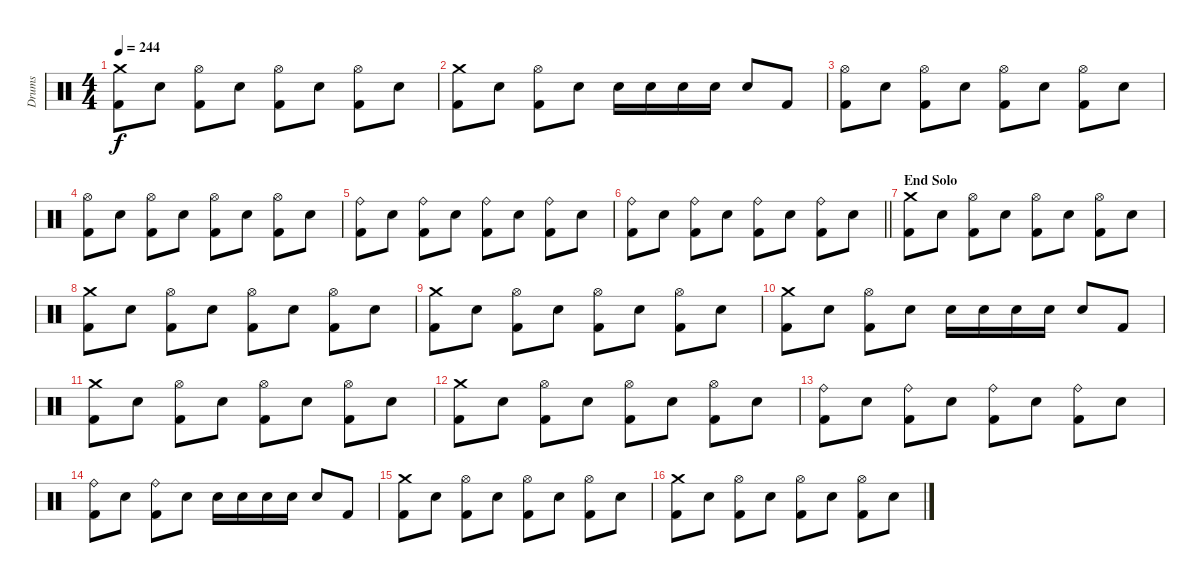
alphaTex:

\track ("Drums" "Drums") {instrument percussion}
\staff
\articulation defaults
\ts (4 4)
\tempo 244
\clef neutral
\ks c
("Crash medium (hit)" "Kick (hit) 2").8{dy f} "Electric Snare (hit)".8 ("Hi-Hat (open)" "Kick (hit) 2").8 "Electric Snare (hit)".8 ("Hi-Hat (open)" "Kick (hit) 2").8 "Electric Snare (hit)".8 ("Hi-Hat (open)" "Kick (hit) 2").8 "Electric Snare (hit)".8 |
("Crash medium (hit)" "Kick (hit) 2").8 "Electric Snare (hit)".8 ("Hi-Hat (open)" "Kick (hit) 2").8 "Electric Snare (hit)".8 "Electric Snare (hit)".16 "Electric Snare (hit)".16 "Electric Snare (hit)".16 "Electric Snare (hit)".16 "Electric Snare (hit)".8 "Kick (hit) 2".8 |
("Hi-Hat (open)" "Kick (hit) 2").8 "Electric Snare (hit)".8 ("Hi-Hat (open)" "Kick (hit) 2").8 "Electric Snare (hit)".8 ("Hi-Hat (open)" "Kick (hit) 2").8 "Electric Snare (hit)".8 ("Hi-Hat (open)" "Kick (hit) 2").8 "Electric Snare (hit)".8 |
("Hi-Hat (open)" "Kick (hit) 2").8 "Electric Snare (hit)".8 ("Hi-Hat (open)" "Kick (hit) 2").8 "Electric Snare (hit)".8 ("Hi-Hat (open)" "Kick (hit) 2").8 "Electric Snare (hit)".8 ("Hi-Hat (open)" "Kick (hit) 2").8 "Electric Snare (hit)".8 |
("Ride (bell)" "Kick (hit) 2").8 "Electric Snare (hit)".8 ("Ride (bell)" "Kick (hit) 2").8 "Electric Snare (hit)".8 ("Ride (bell)" "Kick (hit) 2").8 "Electric Snare (hit)".8 ("Ride (bell)" "Kick (hit) 2").8 "Electric Snare (hit)".8 |
\barLineRight lightlight
("Ride (bell)" "Kick (hit) 2").8 "Electric Snare (hit)".8 ("Ride (bell)" "Kick (hit) 2").8 "Electric Snare (hit)".8 ("Ride (bell)" "Kick (hit) 2").8 "Electric Snare (hit)".8 ("Ride (bell)" "Kick (hit) 2").8 "Electric Snare (hit)".8 |
\section ("" "End Solo")
("Crash medium (hit)" "Kick (hit) 2").8 "Electric Snare (hit)".8 ("Hi-Hat (open)" "Kick (hit) 2").8 "Electric Snare (hit)".8 ("Hi-Hat (open)" "Kick (hit) 2").8 "Electric Snare (hit)".8 ("Hi-Hat (open)" "Kick (hit) 2").8 "Electric Snare (hit)".8 |
("Crash medium (hit)" "Kick (hit) 2").8 "Electric Snare (hit)".8 ("Hi-Hat (open)" "Kick (hit) 2").8 "Electric Snare (hit)".8 ("Hi-Hat (open)" "Kick (hit) 2").8 "Electric Snare (hit)".8 ("Hi-Hat (open)" "Kick (hit) 2").8 "Electric Snare (hit)".8 |
("Crash medium (hit)" "Kick (hit) 2").8 "Electric Snare (hit)".8 ("Hi-Hat (open)" "Kick (hit) 2").8 "Electric Snare (hit)".8 ("Hi-Hat (open)" "Kick (hit) 2").8 "Electric Snare (hit)".8 ("Hi-Hat (open)" "Kick (hit) 2").8 "Electric Snare (hit)".8 |
("Crash medium (hit)" "Kick (hit) 2").8 "Electric Snare (hit)".8 ("Hi-Hat (open)" "Kick (hit) 2").8 "Electric Snare (hit)".8 "Electric Snare (hit)".16 "Electric Snare (hit)".16 "Electric Snare (hit)".16 "Electric Snare (hit)".16 "Electric Snare (hit)".8 "Kick (hit) 2".8 |
("Crash medium (hit)" "Kick (hit) 2").8 "Electric Snare (hit)".8 ("Hi-Hat (open)" "Kick (hit) 2").8 "Electric Snare (hit)".8 ("Hi-Hat (open)" "Kick (hit) 2").8 "Electric Snare (hit)".8 ("Hi-Hat (open)" "Kick (hit) 2").8 "Electric Snare (hit)".8 |
("Crash medium (hit)" "Kick (hit) 2").8 "Electric Snare (hit)".8 ("Hi-Hat (open)" "Kick (hit) 2").8 "Electric Snare (hit)".8 ("Hi-Hat (open)" "Kick (hit) 2").8 "Electric Snare (hit)".8 ("Hi-Hat (open)" "Kick (hit) 2").8 "Electric Snare (hit)".8 |
("Ride (bell)" "Kick (hit) 2").8 "Electric Snare (hit)".8 ("Ride (bell)" "Kick (hit) 2").8 "Electric Snare (hit)".8 ("Ride (bell)" "Kick (hit) 2").8 "Electric Snare (hit)".8 ("Ride (bell)" "Kick (hit) 2").8 "Electric Snare (hit)".8 |
("Ride (bell)" "Kick (hit) 2").8 "Electric Snare (hit)".8 ("Ride (bell)" "Kick (hit) 2").8 "Electric Snare (hit)".8 "Electric Snare (hit)".16 "Electric Snare (hit)".16 "Electric Snare (hit)".16 "Electric Snare (hit)".16 "Electric Snare (hit)".8 "Kick (hit) 2".8 |
("Crash medium (hit)" "Kick (hit) 2").8 "Electric Snare (hit)".8 ("Hi-Hat (open)" "Kick (hit) 2").8 "Electric Snare (hit)".8 ("Hi-Hat (open)" "Kick (hit) 2").8 "Electric Snare (hit)".8 ("Hi-Hat (open)" "Kick (hit) 2").8 "Electric Snare (hit)".8 |
("Crash medium (hit)" "Kick (hit) 2").8 "Electric Snare (hit)".8 ("Hi-Hat (open)" "Kick (hit) 2").8 "Electric Snare (hit)".8 ("Hi-Hat (open)" "Kick (hit) 2").8 "Electric Snare (hit)".8 ("Hi-Hat (open)" "Kick (hit) 2").8 "Electric Snare (hit)".8
